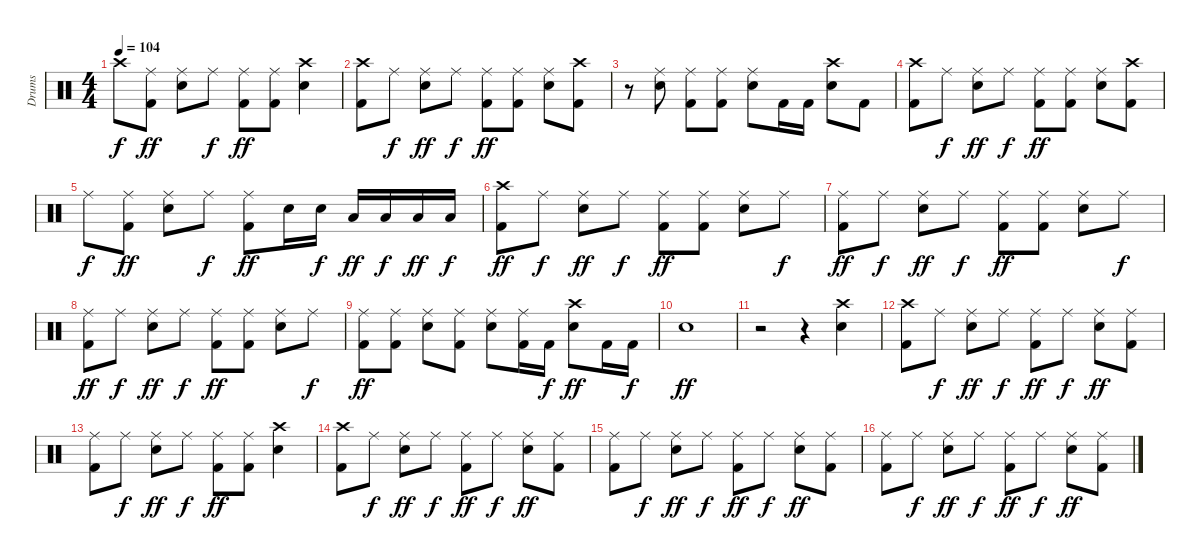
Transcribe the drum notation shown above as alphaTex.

\track ("Drums" "Drums") {instrument percussion}
\staff {score}
\articulation defaults
\ts (4 4)
\tempo 104
\clef neutral
\ks c "Crash high (hit)".8{dy f}
("Ride (middle)" "Kick (hit) 2").8{dy ff} ("Ride (middle)" "Snare (hit) 2").8 "Ride (middle)".8{dy f} ("Ride (middle)" "Kick (hit) 2").8{dy ff} ("Ride (middle)" "Kick (hit) 2").8 ("Crash high (hit)" "Snare (hit) 2").4 |
("Crash high (hit)" "Kick (hit) 2").8 "Ride (middle)".8{dy f} ("Ride (middle)" "Snare (hit) 2").8{dy ff} "Ride (middle)".8{dy f} ("Ride (middle)" "Kick (hit) 2").8{dy ff} ("Ride (middle)" "Kick (hit) 2").8 ("Ride (middle)" "Snare (hit) 2").8 ("Crash high (hit)" "Kick (hit) 2").8 |
r.8 ("Ride (middle)" "Snare (hit) 2").8 ("Ride (middle)" "Kick (hit) 2").8 ("Ride (middle)" "Kick (hit) 2").8 ("Ride (middle)" "Snare (hit) 2").8 "Kick (hit) 2".16 "Kick (hit) 2".16 ("Crash high (hit)" "Snare (hit) 2").8 "Kick (hit) 2".8 |
("Crash high (hit)" "Kick (hit) 2").8 "Ride (middle)".8{dy f} ("Ride (middle)" "Snare (hit) 2").8{dy ff} "Ride (middle)".8{dy f} ("Ride (middle)" "Kick (hit) 2").8{dy ff} ("Ride (middle)" "Kick (hit) 2").8 ("Ride (middle)" "Snare (hit) 2").8 ("Crash high (hit)" "Kick (hit) 2").8 |
"Ride (middle)".8{dy f} ("Ride (middle)" "Kick (hit) 2").8{dy ff} ("Ride (middle)" "Snare (hit) 2").8 "Ride (middle)".8{dy f} ("Ride (middle)" "Kick (hit) 2").8{dy ff} "Snare (hit) 2".16 "Snare (hit) 2".16{dy f} "Low Tom (hit)".16{dy ff} "Low Tom (hit)".16{dy f} "Low Floor Tom (hit)".16{dy ff} "Low Floor Tom (hit)".16{dy f} |
("Crash high (hit)" "Kick (hit) 2").8{dy ff} "Ride (middle)".8{dy f} ("Ride (middle)" "Snare (hit) 2").8{dy ff} "Ride (middle)".8{dy f} ("Ride (middle)" "Kick (hit) 2").8{dy ff} ("Ride (middle)" "Kick (hit) 2").8 ("Ride (middle)" "Snare (hit) 2").8 "Ride (middle)".8{dy f} |
("Ride (middle)" "Kick (hit) 2").8{dy ff} "Ride (middle)".8{dy f} ("Ride (middle)" "Snare (hit) 2").8{dy ff} "Ride (middle)".8{dy f} ("Ride (middle)" "Kick (hit) 2").8{dy ff} ("Ride (middle)" "Kick (hit) 2").8 ("Ride (middle)" "Snare (hit) 2").8 "Ride (middle)".8{dy f} |
("Ride (middle)" "Kick (hit) 2").8{dy ff} "Ride (middle)".8{dy f} ("Ride (middle)" "Snare (hit) 2").8{dy ff} "Ride (middle)".8{dy f} ("Ride (middle)" "Kick (hit) 2").8{dy ff} ("Ride (middle)" "Kick (hit) 2").8 ("Ride (middle)" "Snare (hit) 2").8 "Ride (middle)".8{dy f} |
("Ride (middle)" "Kick (hit) 2").8{dy ff} ("Ride (middle)" "Kick (hit) 2").8 ("Ride (middle)" "Snare (hit) 2").8 ("Ride (middle)" "Kick (hit) 2").8 ("Ride (middle)" "Snare (hit) 2").8 ("Ride (middle)" "Kick (hit) 2").16 "Kick (hit) 2".16{dy f} ("Crash high (hit)" "Snare (hit) 2").8{dy ff} "Kick (hit) 2".16 "Kick (hit) 2".16{dy f} |
"Snare (hit) 2".1{dy ff} |
r.2 r.4 ("Crash high (hit)" "Snare (hit) 2").4 |
("Crash high (hit)" "Kick (hit) 2").8 "Ride (middle)".8{dy f} ("Ride (middle)" "Snare (hit) 2").8{dy ff} "Ride (middle)".8{dy f} ("Ride (middle)" "Kick (hit) 2").8{dy ff} "Ride (middle)".8{dy f} ("Ride (middle)" "Snare (hit) 2").8{dy ff} ("Ride (middle)" "Kick (hit) 2").8 |
("Ride (middle)" "Kick (hit) 2").8 "Ride (middle)".8{dy f} ("Ride (middle)" "Snare (hit) 2").8{dy ff} "Ride (middle)".8{dy f} ("Ride (middle)" "Kick (hit) 2").8{dy ff} ("Ride (middle)" "Kick (hit) 2").8 ("Crash high (hit)" "Snare (hit) 2").4 |
("Crash high (hit)" "Kick (hit) 2").8 "Ride (middle)".8{dy f} ("Ride (middle)" "Snare (hit) 2").8{dy ff} "Ride (middle)".8{dy f} ("Ride (middle)" "Kick (hit) 2").8{dy ff} "Ride (middle)".8{dy f} ("Ride (middle)" "Snare (hit) 2").8{dy ff} ("Ride (middle)" "Kick (hit) 2").8 |
("Ride (middle)" "Kick (hit) 2").8 "Ride (middle)".8{dy f} ("Ride (middle)" "Snare (hit) 2").8{dy ff} "Ride (middle)".8{dy f} ("Ride (middle)" "Kick (hit) 2").8{dy ff} "Ride (middle)".8{dy f} ("Ride (middle)" "Snare (hit) 2").8{dy ff} ("Ride (middle)" "Kick (hit) 2").8 |
("Ride (middle)" "Kick (hit) 2").8 "Ride (middle)".8{dy f} ("Ride (middle)" "Snare (hit) 2").8{dy ff} "Ride (middle)".8{dy f} ("Ride (middle)" "Kick (hit) 2").8{dy ff} "Ride (middle)".8{dy f} ("Ride (middle)" "Snare (hit) 2").8{dy ff} ("Ride (middle)" "Kick (hit) 2").8
